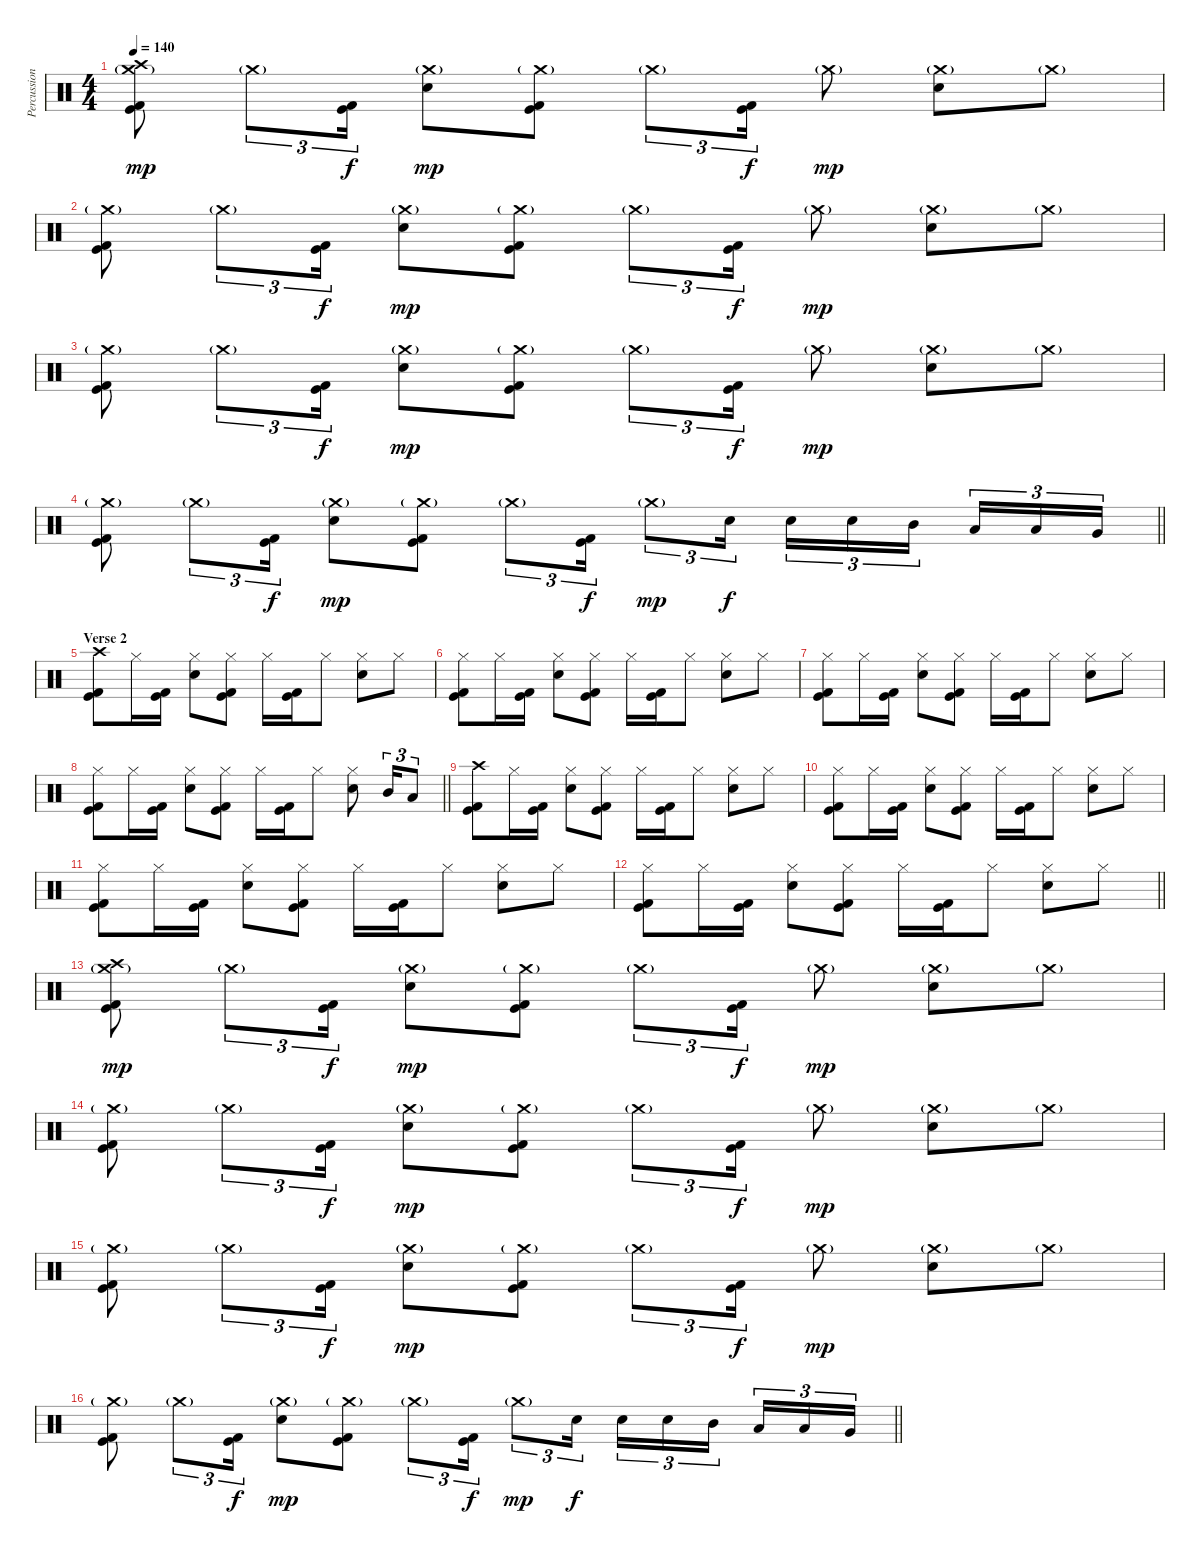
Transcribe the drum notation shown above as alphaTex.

\track ("Percussion" "Percussion") {instrument percussion}
\staff {score}
\articulation defaults
\ts (4 4)
\section ("" "")
\tempo 140
\clef neutral
\ks c
("Crash medium (hit)"{g} "Crash high (hit)" "Kick (hit)" "Kick (hit) 2").8{dy mp} "Crash medium (hit)"{g}.8{tu (3 2)} ("Kick (hit)" "Kick (hit) 2").16{tu (3 2) dy f} ("Crash medium (hit)"{g} "Electric Snare (hit)").8{dy mp} ("Crash medium (hit)"{g} "Kick (hit)" "Kick (hit) 2").8 "Crash medium (hit)"{g}.8{tu (3 2)} ("Kick (hit)" "Kick (hit) 2").16{tu (3 2) dy f} "Crash medium (hit)"{g}.8{dy mp} ("Crash medium (hit)"{g} "Electric Snare (hit)").8 "Crash medium (hit)"{g}.8 |
("Crash medium (hit)"{g} "Kick (hit)" "Kick (hit) 2").8 "Crash medium (hit)"{g}.8{tu (3 2)} ("Kick (hit)" "Kick (hit) 2").16{tu (3 2) dy f} ("Crash medium (hit)"{g} "Electric Snare (hit)").8{dy mp} ("Crash medium (hit)"{g} "Kick (hit)" "Kick (hit) 2").8 "Crash medium (hit)"{g}.8{tu (3 2)} ("Kick (hit)" "Kick (hit) 2").16{tu (3 2) dy f} "Crash medium (hit)"{g}.8{dy mp} ("Crash medium (hit)"{g} "Electric Snare (hit)").8 "Crash medium (hit)"{g}.8 |
("Crash medium (hit)"{g} "Kick (hit)" "Kick (hit) 2").8 "Crash medium (hit)"{g}.8{tu (3 2)} ("Kick (hit)" "Kick (hit) 2").16{tu (3 2) dy f} ("Crash medium (hit)"{g} "Electric Snare (hit)").8{dy mp} ("Crash medium (hit)"{g} "Kick (hit)" "Kick (hit) 2").8 "Crash medium (hit)"{g}.8{tu (3 2)} ("Kick (hit)" "Kick (hit) 2").16{tu (3 2) dy f} "Crash medium (hit)"{g}.8{dy mp} ("Crash medium (hit)"{g} "Electric Snare (hit)").8 "Crash medium (hit)"{g}.8 |
\barLineRight lightlight
("Crash medium (hit)"{g} "Kick (hit)" "Kick (hit) 2").8 "Crash medium (hit)"{g}.8{tu (3 2)} ("Kick (hit)" "Kick (hit) 2").16{tu (3 2) dy f} ("Crash medium (hit)"{g} "Electric Snare (hit)").8{dy mp} ("Crash medium (hit)"{g} "Kick (hit)" "Kick (hit) 2").8 "Crash medium (hit)"{g}.8{tu (3 2)} ("Kick (hit)" "Kick (hit) 2").16{tu (3 2) dy f} "Crash medium (hit)"{g}.8{tu (3 2) dy mp} "Electric Snare (hit)".16{tu (3 2) dy f} "Electric Snare (hit)".16{tu (3 2)} "Electric Snare (hit)".16{tu (3 2)} "Mid Tom (hit)".16{tu (3 2) beam splitsecondary} "Low Tom (hit)".16{tu (3 2)} "Low Tom (hit)".16{tu (3 2)} "Very Low Tom (hit)".16{tu (3 2)} |
\section ("" "Verse 2")
("Crash high (hit)" "Kick (hit)" "Kick (hit) 2").8 "Hi-Hat (closed)".16 ("Kick (hit)" "Kick (hit) 2").16 ("Hi-Hat (closed)" "Electric Snare (hit)").8 ("Hi-Hat (closed)" "Kick (hit)" "Kick (hit) 2").8 "Hi-Hat (closed)".16 ("Kick (hit)" "Kick (hit) 2").16 "Hi-Hat (closed)".8 ("Hi-Hat (closed)" "Electric Snare (hit)").8 "Hi-Hat (closed)".8 |
("Hi-Hat (closed)" "Kick (hit)" "Kick (hit) 2").8 "Hi-Hat (closed)".16 ("Kick (hit)" "Kick (hit) 2").16 ("Hi-Hat (closed)" "Electric Snare (hit)").8 ("Hi-Hat (closed)" "Kick (hit)" "Kick (hit) 2").8 "Hi-Hat (closed)".16 ("Kick (hit)" "Kick (hit) 2").16 "Hi-Hat (closed)".8 ("Hi-Hat (closed)" "Electric Snare (hit)").8 "Hi-Hat (closed)".8 |
("Hi-Hat (closed)" "Kick (hit)" "Kick (hit) 2").8 "Hi-Hat (closed)".16 ("Kick (hit)" "Kick (hit) 2").16 ("Hi-Hat (closed)" "Electric Snare (hit)").8 ("Hi-Hat (closed)" "Kick (hit)" "Kick (hit) 2").8 "Hi-Hat (closed)".16 ("Kick (hit)" "Kick (hit) 2").16 "Hi-Hat (closed)".8 ("Hi-Hat (closed)" "Electric Snare (hit)").8 "Hi-Hat (closed)".8 |
\barLineRight lightlight
("Hi-Hat (closed)" "Kick (hit)" "Kick (hit) 2").8 "Hi-Hat (closed)".16 ("Kick (hit)" "Kick (hit) 2").16 ("Hi-Hat (closed)" "Electric Snare (hit)").8 ("Hi-Hat (closed)" "Kick (hit)" "Kick (hit) 2").8 "Hi-Hat (closed)".16 ("Kick (hit)" "Kick (hit) 2").16 "Hi-Hat (closed)".8 ("Hi-Hat (closed)" "Electric Snare (hit)").8 "Mid Tom (hit)".16{tu (3 2)} "Low Tom (hit)".8{tu (3 2)} |
("Crash high (hit)" "Kick (hit)" "Kick (hit) 2").8 "Hi-Hat (closed)".16 ("Kick (hit)" "Kick (hit) 2").16 ("Hi-Hat (closed)" "Electric Snare (hit)").8 ("Hi-Hat (closed)" "Kick (hit)" "Kick (hit) 2").8 "Hi-Hat (closed)".16 ("Kick (hit)" "Kick (hit) 2").16 "Hi-Hat (closed)".8 ("Hi-Hat (closed)" "Electric Snare (hit)").8 "Hi-Hat (closed)".8 |
("Hi-Hat (closed)" "Kick (hit)" "Kick (hit) 2").8 "Hi-Hat (closed)".16 ("Kick (hit)" "Kick (hit) 2").16 ("Hi-Hat (closed)" "Electric Snare (hit)").8 ("Hi-Hat (closed)" "Kick (hit)" "Kick (hit) 2").8 "Hi-Hat (closed)".16 ("Kick (hit)" "Kick (hit) 2").16 "Hi-Hat (closed)".8 ("Hi-Hat (closed)" "Electric Snare (hit)").8 "Hi-Hat (closed)".8 |
("Hi-Hat (closed)" "Kick (hit)" "Kick (hit) 2").8 "Hi-Hat (closed)".16 ("Kick (hit)" "Kick (hit) 2").16 ("Hi-Hat (closed)" "Electric Snare (hit)").8 ("Hi-Hat (closed)" "Kick (hit)" "Kick (hit) 2").8 "Hi-Hat (closed)".16 ("Kick (hit)" "Kick (hit) 2").16 "Hi-Hat (closed)".8 ("Hi-Hat (closed)" "Electric Snare (hit)").8 "Hi-Hat (closed)".8 |
\barLineRight lightlight
("Hi-Hat (closed)" "Kick (hit)" "Kick (hit) 2").8 "Hi-Hat (closed)".16 ("Kick (hit)" "Kick (hit) 2").16 ("Hi-Hat (closed)" "Electric Snare (hit)").8 ("Hi-Hat (closed)" "Kick (hit)" "Kick (hit) 2").8 "Hi-Hat (closed)".16 ("Kick (hit)" "Kick (hit) 2").16 "Hi-Hat (closed)".8 ("Hi-Hat (closed)" "Electric Snare (hit)").8 "Hi-Hat (closed)".8 |
\section ("" "")
("Crash medium (hit)"{g} "Crash high (hit)" "Kick (hit)" "Kick (hit) 2").8{dy mp} "Crash medium (hit)"{g}.8{tu (3 2)} ("Kick (hit)" "Kick (hit) 2").16{tu (3 2) dy f} ("Crash medium (hit)"{g} "Electric Snare (hit)").8{dy mp} ("Crash medium (hit)"{g} "Kick (hit)" "Kick (hit) 2").8 "Crash medium (hit)"{g}.8{tu (3 2)} ("Kick (hit)" "Kick (hit) 2").16{tu (3 2) dy f} "Crash medium (hit)"{g}.8{dy mp} ("Crash medium (hit)"{g} "Electric Snare (hit)").8 "Crash medium (hit)"{g}.8 |
("Crash medium (hit)"{g} "Kick (hit)" "Kick (hit) 2").8 "Crash medium (hit)"{g}.8{tu (3 2)} ("Kick (hit)" "Kick (hit) 2").16{tu (3 2) dy f} ("Crash medium (hit)"{g} "Electric Snare (hit)").8{dy mp} ("Crash medium (hit)"{g} "Kick (hit)" "Kick (hit) 2").8 "Crash medium (hit)"{g}.8{tu (3 2)} ("Kick (hit)" "Kick (hit) 2").16{tu (3 2) dy f} "Crash medium (hit)"{g}.8{dy mp} ("Crash medium (hit)"{g} "Electric Snare (hit)").8 "Crash medium (hit)"{g}.8 |
("Crash medium (hit)"{g} "Kick (hit)" "Kick (hit) 2").8 "Crash medium (hit)"{g}.8{tu (3 2)} ("Kick (hit)" "Kick (hit) 2").16{tu (3 2) dy f} ("Crash medium (hit)"{g} "Electric Snare (hit)").8{dy mp} ("Crash medium (hit)"{g} "Kick (hit)" "Kick (hit) 2").8 "Crash medium (hit)"{g}.8{tu (3 2)} ("Kick (hit)" "Kick (hit) 2").16{tu (3 2) dy f} "Crash medium (hit)"{g}.8{dy mp} ("Crash medium (hit)"{g} "Electric Snare (hit)").8 "Crash medium (hit)"{g}.8 |
\barLineRight lightlight
("Crash medium (hit)"{g} "Kick (hit)" "Kick (hit) 2").8 "Crash medium (hit)"{g}.8{tu (3 2)} ("Kick (hit)" "Kick (hit) 2").16{tu (3 2) dy f} ("Crash medium (hit)"{g} "Electric Snare (hit)").8{dy mp} ("Crash medium (hit)"{g} "Kick (hit)" "Kick (hit) 2").8 "Crash medium (hit)"{g}.8{tu (3 2)} ("Kick (hit)" "Kick (hit) 2").16{tu (3 2) dy f} "Crash medium (hit)"{g}.8{tu (3 2) dy mp} "Electric Snare (hit)".16{tu (3 2) dy f} "Electric Snare (hit)".16{tu (3 2)} "Electric Snare (hit)".16{tu (3 2)} "Mid Tom (hit)".16{tu (3 2) beam splitsecondary} "Low Tom (hit)".16{tu (3 2)} "Low Tom (hit)".16{tu (3 2)} "Very Low Tom (hit)".16{tu (3 2)}
